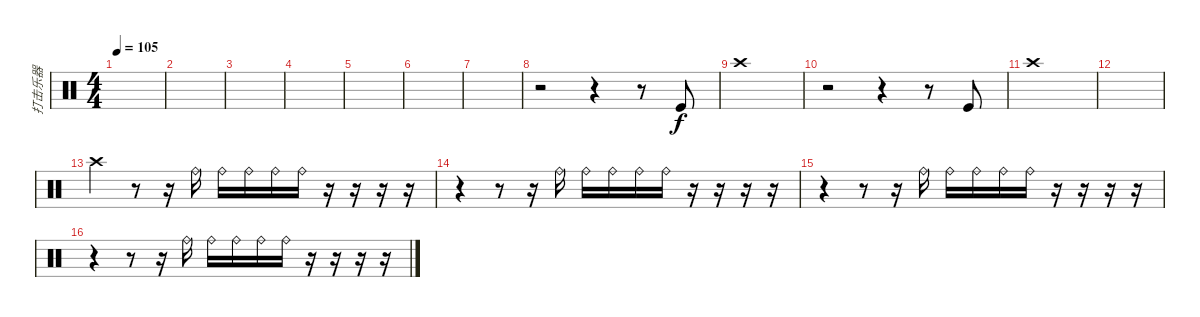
\track ("打击乐器" "打击乐器") {instrument percussion}
\staff {score}
\articulation defaults
\ts (4 4)
\tempo 105
\clef neutral
\ks c
|
|
|
|
|
|
|
r.2 r.4 r.8 "Kick (hit)".8 |
"Crash high (hit)".1 |
r.2 r.4 r.8 "Kick (hit)".8 |
"Crash high (hit)".1 |
|
"Crash high (hit)".4 r.8 r.16 "Ride (bell)".16 "Ride (bell)".16 "Ride (bell)".16 "Ride (bell)".16 "Ride (bell)".16 r.16 r.16 r.16 r.16 |
r.4 r.8 r.16 "Ride (bell)".16 "Ride (bell)".16 "Ride (bell)".16 "Ride (bell)".16 "Ride (bell)".16 r.16 r.16 r.16 r.16 |
r.4 r.8 r.16 "Ride (bell)".16 "Ride (bell)".16 "Ride (bell)".16 "Ride (bell)".16 "Ride (bell)".16 r.16 r.16 r.16 r.16 |
r.4 r.8 r.16 "Ride (bell)".16 "Ride (bell)".16 "Ride (bell)".16 "Ride (bell)".16 "Ride (bell)".16 r.16 r.16 r.16 r.16
